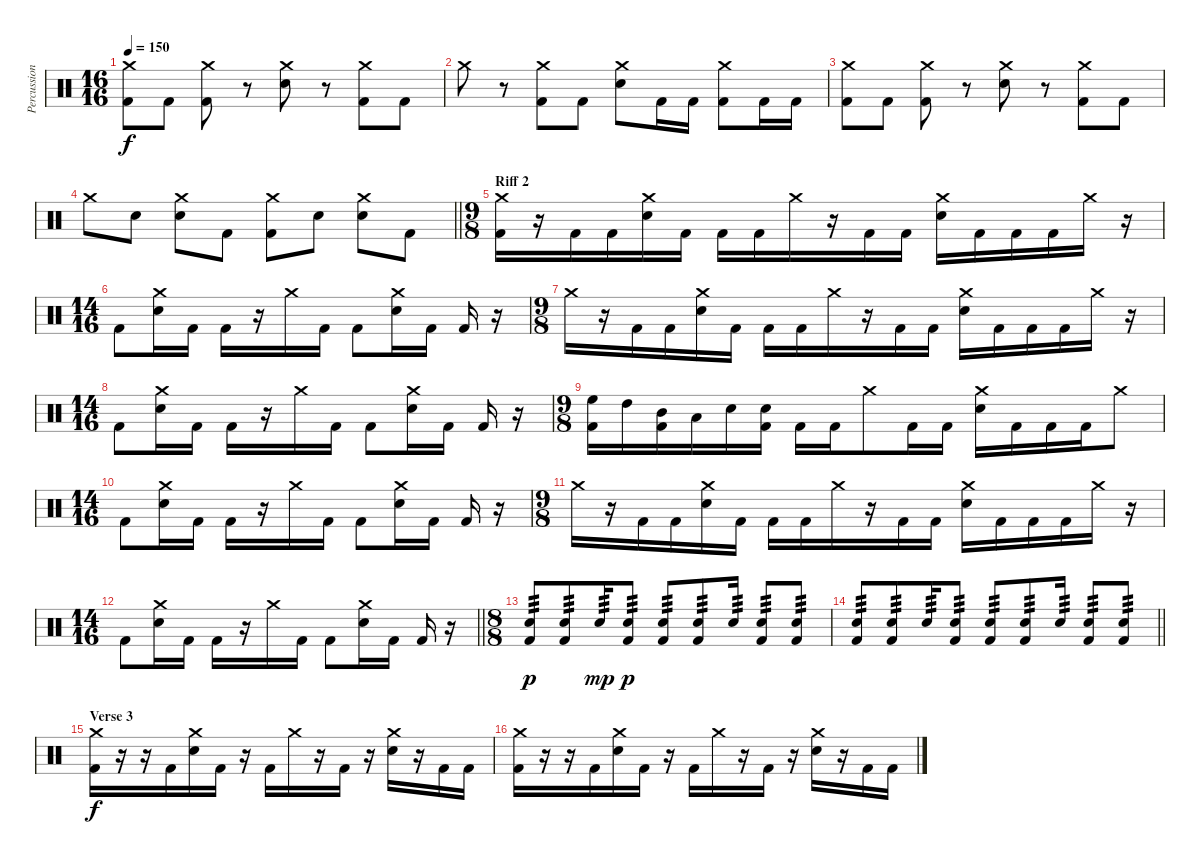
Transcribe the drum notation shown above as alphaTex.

\track ("Percussions" "Percussion") {instrument percussion}
\staff {score}
\articulation defaults
\ts (16 16)
\tempo 150
\clef neutral
\ks c
("Crash medium (hit)" "Kick (hit) 2").8{dy f} "Kick (hit) 2".8 ("Crash medium (hit)" "Kick (hit) 2").8 r.8 ("Crash medium (hit)" "Electric Snare (hit)").8 r.8 ("Crash medium (hit)" "Kick (hit) 2").8 "Kick (hit) 2".8 |
"Crash medium (hit)".8 r.8 ("Crash medium (hit)" "Kick (hit) 2").8 "Kick (hit) 2".8 ("Crash medium (hit)" "Electric Snare (hit)").8 "Kick (hit) 2".16 "Kick (hit) 2".16 ("Crash medium (hit)" "Kick (hit) 2").8 "Kick (hit) 2".16 "Kick (hit) 2".16 |
("Crash medium (hit)" "Kick (hit) 2").8 "Kick (hit) 2".8 ("Crash medium (hit)" "Kick (hit) 2").8 r.8 ("Crash medium (hit)" "Electric Snare (hit)").8 r.8 ("Crash medium (hit)" "Kick (hit) 2").8 "Kick (hit) 2".8 |
\barLineRight lightlight "Crash medium (hit)".8 "Electric Snare (hit)".8
("Crash medium (hit)" "Electric Snare (hit)").8 "Kick (hit) 2".8 ("Crash medium (hit)" "Kick (hit) 2").8 "Electric Snare (hit)".8 ("Crash medium (hit)" "Electric Snare (hit)").8 "Kick (hit) 2".8 |
\ts (9 8)
\section ("" "Riff 2")
("Crash medium (hit)" "Kick (hit) 2").16 r.16 "Kick (hit) 2".16 "Kick (hit) 2".16 ("Crash medium (hit)" "Electric Snare (hit)").16 "Kick (hit) 2".16 "Kick (hit) 2".16 "Kick (hit) 2".16 "Crash medium (hit)".16 r.16 "Kick (hit) 2".16 "Kick (hit) 2".16 ("Crash medium (hit)" "Electric Snare (hit)").16 "Kick (hit) 2".16 "Kick (hit) 2".16 "Kick (hit) 2".16 "Crash medium (hit)".16 r.16 |
\ts (14 16)
"Kick (hit) 2".8 ("Crash medium (hit)" "Electric Snare (hit)").16 "Kick (hit) 2".16 "Kick (hit) 2".16 r.16 "Crash medium (hit)".16 "Kick (hit) 2".16 "Kick (hit) 2".8 ("Crash medium (hit)" "Electric Snare (hit)").16 "Kick (hit) 2".16 "Kick (hit) 2".16 r.16 |
\ts (9 8)
"Crash medium (hit)".16 r.16 "Kick (hit) 2".16 "Kick (hit) 2".16 ("Crash medium (hit)" "Electric Snare (hit)").16 "Kick (hit) 2".16 "Kick (hit) 2".16 "Kick (hit) 2".16 "Crash medium (hit)".16 r.16 "Kick (hit) 2".16 "Kick (hit) 2".16 ("Crash medium (hit)" "Electric Snare (hit)").16 "Kick (hit) 2".16 "Kick (hit) 2".16 "Kick (hit) 2".16 "Crash medium (hit)".16 r.16 |
\ts (14 16)
"Kick (hit) 2".8 ("Crash medium (hit)" "Electric Snare (hit)").16 "Kick (hit) 2".16 "Kick (hit) 2".16 r.16 "Crash medium (hit)".16 "Kick (hit) 2".16 "Kick (hit) 2".8 ("Crash medium (hit)" "Electric Snare (hit)").16 "Kick (hit) 2".16 "Kick (hit) 2".16 r.16 |
\ts (9 8)
("High Floor Tom (hit)" "Kick (hit) 2").16 "High Tom (hit)".16 ("Mid Tom (hit)" "Kick (hit) 2").16 "Low Tom (hit)".16 "Electric Snare (hit)".16 ("Electric Snare (hit)" "Kick (hit) 2").16 "Kick (hit) 2".16 "Kick (hit) 2".16 "Crash medium (hit)".8 "Kick (hit) 2".16 "Kick (hit) 2".16 ("Crash medium (hit)" "Electric Snare (hit)").16 "Kick (hit) 2".16 "Kick (hit) 2".16 "Kick (hit) 2".16 "Crash medium (hit)".8 |
\ts (14 16)
"Kick (hit) 2".8 ("Crash medium (hit)" "Electric Snare (hit)").16 "Kick (hit) 2".16 "Kick (hit) 2".16 r.16 "Crash medium (hit)".16 "Kick (hit) 2".16 "Kick (hit) 2".8 ("Crash medium (hit)" "Electric Snare (hit)").16 "Kick (hit) 2".16 "Kick (hit) 2".16 r.16 |
\ts (9 8)
"Crash medium (hit)".16 r.16 "Kick (hit) 2".16 "Kick (hit) 2".16 ("Crash medium (hit)" "Electric Snare (hit)").16 "Kick (hit) 2".16 "Kick (hit) 2".16 "Kick (hit) 2".16 "Crash medium (hit)".16 r.16 "Kick (hit) 2".16 "Kick (hit) 2".16 ("Crash medium (hit)" "Electric Snare (hit)").16 "Kick (hit) 2".16 "Kick (hit) 2".16 "Kick (hit) 2".16 "Crash medium (hit)".16 r.16 |
\ts (14 16)
\barLineRight lightlight "Kick (hit) 2".8
("Crash medium (hit)" "Electric Snare (hit)").16 "Kick (hit) 2".16 "Kick (hit) 2".16 r.16 "Crash medium (hit)".16 "Kick (hit) 2".16 "Kick (hit) 2".8 ("Crash medium (hit)" "Electric Snare (hit)").16 "Kick (hit) 2".16 "Kick (hit) 2".16 r.16 |
\ts (8 8)
("Electric Snare (hit)" "Kick (hit) 2").8{tp 3 dy p} ("Electric Snare (hit)" "Kick (hit) 2").8{tp 3} "Electric Snare (hit)".16{tp 3 dy mp} ("Electric Snare (hit)" "Kick (hit) 2").8{tp 3 dy p} ("Electric Snare (hit)" "Kick (hit) 2").8{tp 3} ("Electric Snare (hit)" "Kick (hit) 2").8{tp 3} "Electric Snare (hit)".16{tp 3} ("Electric Snare (hit)" "Kick (hit) 2").8{tp 3} ("Electric Snare (hit)" "Kick (hit) 2").8{tp 3} |
\barLineRight lightlight
("Electric Snare (hit)" "Kick (hit) 2").8{tp 3} ("Electric Snare (hit)" "Kick (hit) 2").8{tp 3} "Electric Snare (hit)".16{tp 3} ("Electric Snare (hit)" "Kick (hit) 2").8{tp 3} ("Electric Snare (hit)" "Kick (hit) 2").8{tp 3} ("Electric Snare (hit)" "Kick (hit) 2").8{tp 3} "Electric Snare (hit)".16{tp 3} ("Electric Snare (hit)" "Kick (hit) 2").8{tp 3} ("Electric Snare (hit)" "Kick (hit) 2").8{tp 3} |
\section ("" "Verse 3")
("Crash medium (hit)" "Kick (hit) 2").16{dy f} r.16 r.16 "Kick (hit) 2".16 ("Crash medium (hit)" "Electric Snare (hit)").16 "Kick (hit) 2".16 r.16 "Kick (hit) 2".16 "Crash medium (hit)".16 r.16 "Kick (hit) 2".16 r.16 ("Crash medium (hit)" "Electric Snare (hit)").16 r.16 "Kick (hit) 2".16 "Kick (hit) 2".16 |
("Crash medium (hit)" "Kick (hit) 2").16 r.16 r.16 "Kick (hit) 2".16 ("Crash medium (hit)" "Electric Snare (hit)").16 "Kick (hit) 2".16 r.16 "Kick (hit) 2".16 "Crash medium (hit)".16 r.16 "Kick (hit) 2".16 r.16 ("Crash medium (hit)" "Electric Snare (hit)").16 r.16 "Kick (hit) 2".16 "Kick (hit) 2".16
